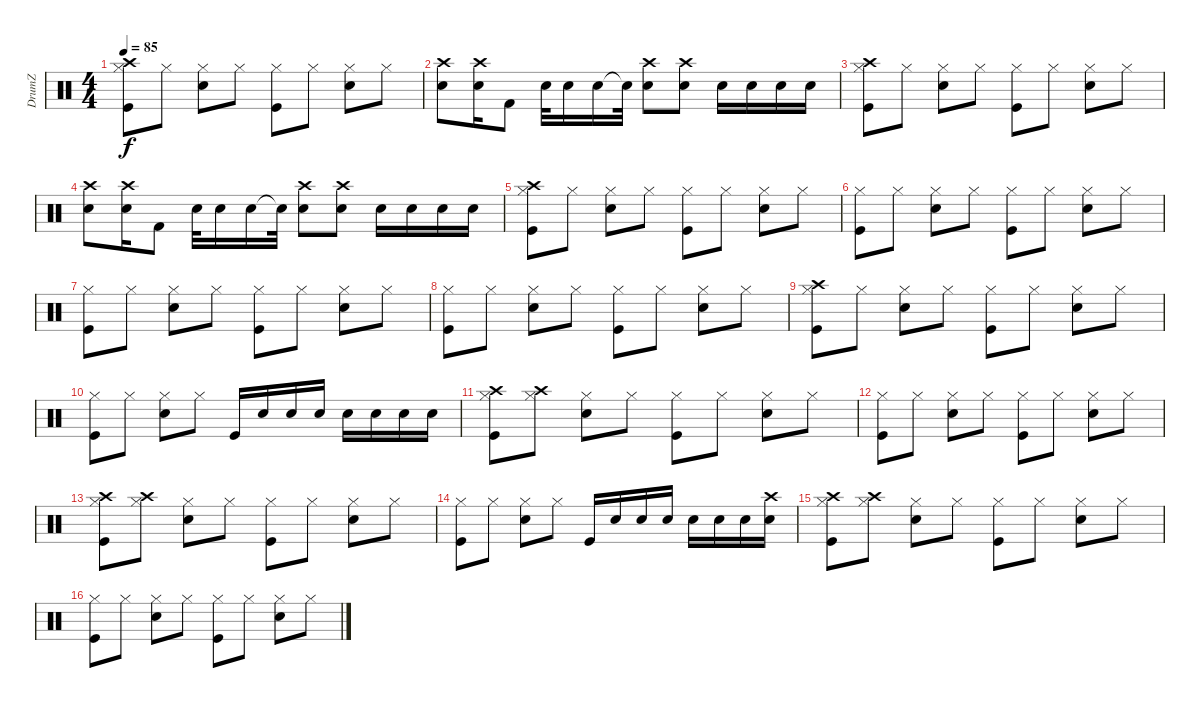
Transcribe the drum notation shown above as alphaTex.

\track ("DrumZ" "DrumZ") {instrument percussion}
\staff {score}
\articulation defaults
\ts (4 4)
\tempo 85
\clef neutral
\ks c
("Hi-Hat (closed)" "Crash high (hit)" "Kick (hit)").8{dy f} "Hi-Hat (closed)".8 ("Hi-Hat (closed)" "Electric Snare (hit)").8 "Hi-Hat (closed)".8 ("Hi-Hat (closed)" "Kick (hit)").8 "Hi-Hat (closed)".8 ("Hi-Hat (closed)" "Electric Snare (hit)").8 "Hi-Hat (closed)".8 |
("Electric Snare (hit)" "Crash high (hit)").8 ("Electric Snare (hit)" "Crash high (hit)").16 "Kick (hit) 2".8 "Electric Snare (hit)".32 "Electric Snare (hit)".16 "Electric Snare (hit)".16 "Snare (hit)"{t}.32 ("Electric Snare (hit)" "Crash high (hit)").8 ("Electric Snare (hit)" "Crash high (hit)").8 "Electric Snare (hit)".16 "Electric Snare (hit)".16 "Electric Snare (hit)".16 "Electric Snare (hit)".16 |
("Hi-Hat (closed)" "Crash high (hit)" "Kick (hit)").8 "Hi-Hat (closed)".8 ("Hi-Hat (closed)" "Electric Snare (hit)").8 "Hi-Hat (closed)".8 ("Hi-Hat (closed)" "Kick (hit)").8 "Hi-Hat (closed)".8 ("Hi-Hat (closed)" "Electric Snare (hit)").8 "Hi-Hat (closed)".8 |
("Electric Snare (hit)" "Crash high (hit)").8 ("Electric Snare (hit)" "Crash high (hit)").16 "Kick (hit) 2".8 "Electric Snare (hit)".32 "Electric Snare (hit)".16 "Electric Snare (hit)".16 "Snare (hit)"{t}.32 ("Electric Snare (hit)" "Crash high (hit)").8 ("Electric Snare (hit)" "Crash high (hit)").8 "Electric Snare (hit)".16 "Electric Snare (hit)".16 "Electric Snare (hit)".16 "Electric Snare (hit)".16 |
("Hi-Hat (closed)" "Crash high (hit)" "Kick (hit)").8 "Hi-Hat (closed)".8 ("Hi-Hat (closed)" "Electric Snare (hit)").8 "Hi-Hat (closed)".8 ("Hi-Hat (closed)" "Kick (hit)").8 "Hi-Hat (closed)".8 ("Hi-Hat (closed)" "Electric Snare (hit)").8 "Hi-Hat (closed)".8 |
("Hi-Hat (closed)" "Kick (hit)").8 "Hi-Hat (closed)".8 ("Hi-Hat (closed)" "Electric Snare (hit)").8 "Hi-Hat (closed)".8 ("Hi-Hat (closed)" "Kick (hit)").8 "Hi-Hat (closed)".8 ("Hi-Hat (closed)" "Electric Snare (hit)").8 "Hi-Hat (closed)".8 |
("Hi-Hat (closed)" "Kick (hit)").8 "Hi-Hat (closed)".8 ("Hi-Hat (closed)" "Electric Snare (hit)").8 "Hi-Hat (closed)".8 ("Hi-Hat (closed)" "Kick (hit)").8 "Hi-Hat (closed)".8 ("Hi-Hat (closed)" "Electric Snare (hit)").8 "Hi-Hat (closed)".8 |
("Hi-Hat (closed)" "Kick (hit)").8 "Hi-Hat (closed)".8 ("Hi-Hat (closed)" "Electric Snare (hit)").8 "Hi-Hat (closed)".8 ("Hi-Hat (closed)" "Kick (hit)").8 "Hi-Hat (closed)".8 ("Hi-Hat (closed)" "Electric Snare (hit)").8 "Hi-Hat (closed)".8 |
("Hi-Hat (closed)" "Crash high (hit)" "Kick (hit)").8 "Hi-Hat (closed)".8 ("Hi-Hat (closed)" "Electric Snare (hit)").8 "Hi-Hat (closed)".8 ("Hi-Hat (closed)" "Kick (hit)").8 "Hi-Hat (closed)".8 ("Hi-Hat (closed)" "Electric Snare (hit)").8 "Hi-Hat (closed)".8 |
("Hi-Hat (closed)" "Kick (hit)").8 "Hi-Hat (closed)".8 ("Hi-Hat (closed)" "Electric Snare (hit)").8 "Hi-Hat (closed)".8 "Kick (hit)".16 "Electric Snare (hit)".16 "Electric Snare (hit)".16 "Electric Snare (hit)".16 "Electric Snare (hit)".16 "Electric Snare (hit)".16 "Electric Snare (hit)".16 "Electric Snare (hit)".16 |
("Hi-Hat (closed)" "Crash high (hit)" "Kick (hit)").8 ("Hi-Hat (closed)" "Crash high (hit)").8 ("Hi-Hat (closed)" "Electric Snare (hit)").8 "Hi-Hat (closed)".8 ("Hi-Hat (closed)" "Kick (hit)").8 "Hi-Hat (closed)".8 ("Hi-Hat (closed)" "Electric Snare (hit)").8 "Hi-Hat (closed)".8 |
("Hi-Hat (closed)" "Kick (hit)").8 "Hi-Hat (closed)".8 ("Hi-Hat (closed)" "Electric Snare (hit)").8 "Hi-Hat (closed)".8 ("Hi-Hat (closed)" "Kick (hit)").8 "Hi-Hat (closed)".8 ("Hi-Hat (closed)" "Electric Snare (hit)").8 "Hi-Hat (closed)".8 |
("Hi-Hat (closed)" "Crash high (hit)" "Kick (hit)").8 ("Hi-Hat (closed)" "Crash high (hit)").8 ("Hi-Hat (closed)" "Electric Snare (hit)").8 "Hi-Hat (closed)".8 ("Hi-Hat (closed)" "Kick (hit)").8 "Hi-Hat (closed)".8 ("Hi-Hat (closed)" "Electric Snare (hit)").8 "Hi-Hat (closed)".8 |
("Hi-Hat (closed)" "Kick (hit)").8 "Hi-Hat (closed)".8 ("Hi-Hat (closed)" "Electric Snare (hit)").8 "Hi-Hat (closed)".8 "Kick (hit)".16 "Electric Snare (hit)".16 "Electric Snare (hit)".16 "Electric Snare (hit)".16 "Electric Snare (hit)".16 "Electric Snare (hit)".16 "Electric Snare (hit)".16 ("Crash high (hit)" "Electric Snare (hit)").16 |
("Hi-Hat (closed)" "Crash high (hit)" "Kick (hit)").8 ("Hi-Hat (closed)" "Crash high (hit)").8 ("Hi-Hat (closed)" "Electric Snare (hit)").8 "Hi-Hat (closed)".8 ("Hi-Hat (closed)" "Kick (hit)").8 "Hi-Hat (closed)".8 ("Hi-Hat (closed)" "Electric Snare (hit)").8 "Hi-Hat (closed)".8 |
("Hi-Hat (closed)" "Kick (hit)").8 "Hi-Hat (closed)".8 ("Hi-Hat (closed)" "Electric Snare (hit)").8 "Hi-Hat (closed)".8 ("Hi-Hat (closed)" "Kick (hit)").8 "Hi-Hat (closed)".8 ("Hi-Hat (closed)" "Electric Snare (hit)").8 "Hi-Hat (closed)".8
